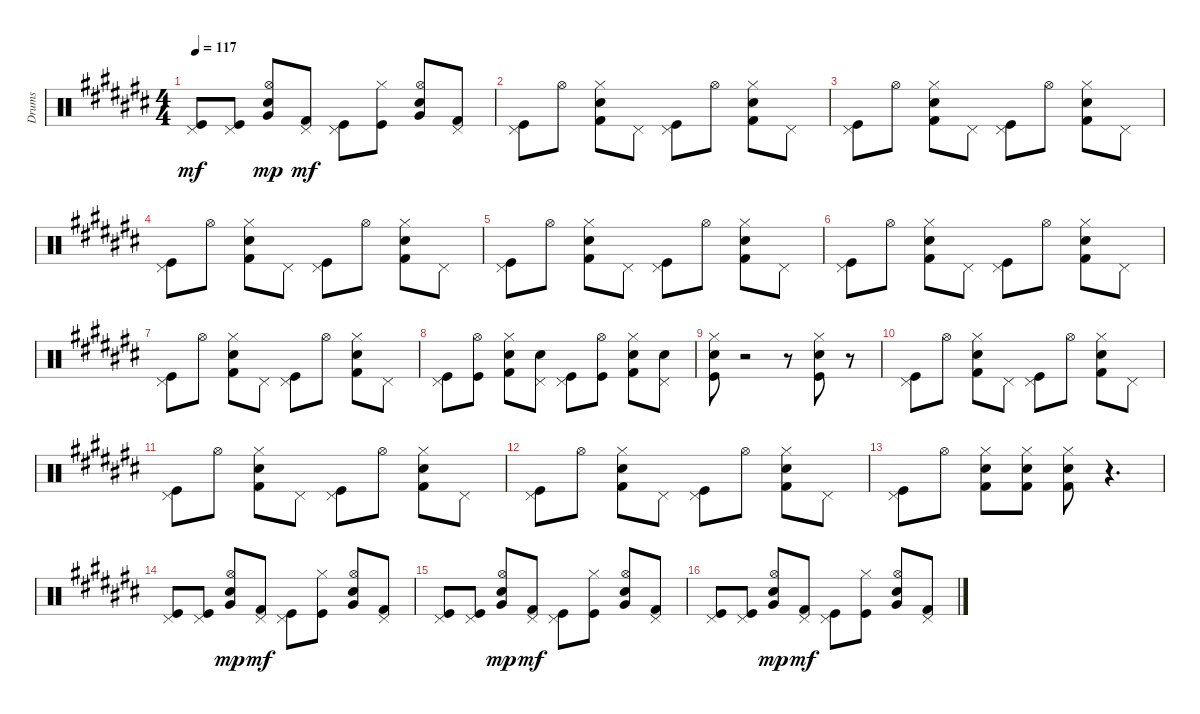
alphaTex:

\track ("Drums" "Drums") {instrument percussion}
\staff {score}
\articulation defaults
\ts (4 4)
\tempo 117
\clef neutral
\ks a#minor
("Pedal Hi-Hat (hit)" "Kick (hit)").8{dy mf} ("Kick (hit)" "Pedal Hi-Hat (hit)").8 ("Snare (hit) 2" "Hi-Hat (open)" "Very Low Tom (hit)").8{dy mp} ("Pedal Hi-Hat (hit)" "Kick (hit) 2").8{dy mf} ("Pedal Hi-Hat (hit)" "Kick (hit)").8 ("Kick (hit)" "Hi-Hat (closed)").8 ("Very Low Tom (hit)" "Snare (hit) 2" "Hi-Hat (open)").8 ("Pedal Hi-Hat (hit)" "Kick (hit) 2").8 |
("Kick (hit)" "Pedal Hi-Hat (hit)").8 "Hi-Hat (open)".8 ("Kick (hit) 2" "Hi-Hat (closed)" "Snare (hit) 2").8 "Pedal Hi-Hat (hit)".8 ("Kick (hit)" "Pedal Hi-Hat (hit)").8 "Hi-Hat (open)".8 ("Kick (hit) 2" "Hi-Hat (closed)" "Snare (hit) 2").8 "Pedal Hi-Hat (hit)".8 |
("Kick (hit)" "Pedal Hi-Hat (hit)").8 "Hi-Hat (open)".8 ("Kick (hit) 2" "Hi-Hat (closed)" "Snare (hit) 2").8 "Pedal Hi-Hat (hit)".8 ("Kick (hit)" "Pedal Hi-Hat (hit)").8 "Hi-Hat (open)".8 ("Kick (hit) 2" "Hi-Hat (closed)" "Snare (hit) 2").8 "Pedal Hi-Hat (hit)".8 |
("Kick (hit)" "Pedal Hi-Hat (hit)").8 "Hi-Hat (open)".8 ("Kick (hit) 2" "Hi-Hat (closed)" "Snare (hit) 2").8 "Pedal Hi-Hat (hit)".8 ("Kick (hit)" "Pedal Hi-Hat (hit)").8 "Hi-Hat (open)".8 ("Kick (hit) 2" "Hi-Hat (closed)" "Snare (hit) 2").8 "Pedal Hi-Hat (hit)".8 |
("Kick (hit)" "Pedal Hi-Hat (hit)").8 "Hi-Hat (open)".8 ("Kick (hit) 2" "Hi-Hat (closed)" "Snare (hit) 2").8 "Pedal Hi-Hat (hit)".8 ("Kick (hit)" "Pedal Hi-Hat (hit)").8 "Hi-Hat (open)".8 ("Kick (hit) 2" "Hi-Hat (closed)" "Snare (hit) 2").8 "Pedal Hi-Hat (hit)".8 |
("Kick (hit)" "Pedal Hi-Hat (hit)").8 "Hi-Hat (open)".8 ("Kick (hit) 2" "Hi-Hat (closed)" "Snare (hit) 2").8 "Pedal Hi-Hat (hit)".8 ("Kick (hit)" "Pedal Hi-Hat (hit)").8 "Hi-Hat (open)".8 ("Kick (hit) 2" "Hi-Hat (closed)" "Snare (hit) 2").8 "Pedal Hi-Hat (hit)".8 |
("Kick (hit)" "Pedal Hi-Hat (hit)").8 "Hi-Hat (open)".8 ("Kick (hit) 2" "Hi-Hat (closed)" "Snare (hit) 2").8 "Pedal Hi-Hat (hit)".8 ("Kick (hit)" "Pedal Hi-Hat (hit)").8 "Hi-Hat (open)".8 ("Kick (hit) 2" "Hi-Hat (closed)" "Snare (hit) 2").8 "Pedal Hi-Hat (hit)".8 |
("Kick (hit)" "Pedal Hi-Hat (hit)").8 ("Hi-Hat (open)" "Kick (hit)").8 ("Kick (hit) 2" "Hi-Hat (closed)" "Snare (hit) 2").8 ("Pedal Hi-Hat (hit)" "Snare (hit) 2").8 ("Kick (hit)" "Pedal Hi-Hat (hit)").8 ("Hi-Hat (open)" "Kick (hit)").8 ("Kick (hit) 2" "Hi-Hat (closed)" "Snare (hit) 2").8 ("Pedal Hi-Hat (hit)" "Snare (hit) 2").8 |
("Kick (hit)" "Hi-Hat (closed)" "Snare (hit) 2").8 r.2 r.8 ("Hi-Hat (closed)" "Kick (hit)" "Snare (hit) 2").8 r.8 |
("Pedal Hi-Hat (hit)" "Kick (hit)").8 "Hi-Hat (open)".8 ("Kick (hit) 2" "Hi-Hat (closed)" "Snare (hit) 2").8 "Pedal Hi-Hat (hit)".8 ("Kick (hit)" "Pedal Hi-Hat (hit)").8 "Hi-Hat (open)".8 ("Kick (hit) 2" "Hi-Hat (closed)" "Snare (hit) 2").8 "Pedal Hi-Hat (hit)".8 |
("Kick (hit)" "Pedal Hi-Hat (hit)").8 "Hi-Hat (open)".8 ("Kick (hit) 2" "Hi-Hat (closed)" "Snare (hit) 2").8 "Pedal Hi-Hat (hit)".8 ("Kick (hit)" "Pedal Hi-Hat (hit)").8 "Hi-Hat (open)".8 ("Kick (hit) 2" "Hi-Hat (closed)" "Snare (hit) 2").8 "Pedal Hi-Hat (hit)".8 |
("Kick (hit)" "Pedal Hi-Hat (hit)").8 "Hi-Hat (open)".8 ("Kick (hit) 2" "Hi-Hat (closed)" "Snare (hit) 2").8 "Pedal Hi-Hat (hit)".8 ("Kick (hit)" "Pedal Hi-Hat (hit)").8 "Hi-Hat (open)".8 ("Kick (hit) 2" "Hi-Hat (closed)" "Snare (hit) 2").8 "Pedal Hi-Hat (hit)".8 |
("Pedal Hi-Hat (hit)" "Kick (hit)").8 "Hi-Hat (open)".8 ("Kick (hit) 2" "Hi-Hat (closed)" "Snare (hit) 2").8 ("Snare (hit) 2" "Hi-Hat (closed)" "Kick (hit) 2").8 ("Snare (hit) 2" "Hi-Hat (closed)" "Kick (hit) 2").8 r.4{d} |
("Pedal Hi-Hat (hit)" "Kick (hit)").8 ("Kick (hit)" "Pedal Hi-Hat (hit)").8 ("Snare (hit) 2" "Hi-Hat (open)" "Very Low Tom (hit)").8{dy mp} ("Pedal Hi-Hat (hit)" "Kick (hit) 2").8{dy mf} ("Pedal Hi-Hat (hit)" "Kick (hit)").8 ("Kick (hit)" "Hi-Hat (closed)").8 ("Very Low Tom (hit)" "Snare (hit) 2" "Hi-Hat (open)").8 ("Pedal Hi-Hat (hit)" "Kick (hit) 2").8 |
("Pedal Hi-Hat (hit)" "Kick (hit)").8 ("Kick (hit)" "Pedal Hi-Hat (hit)").8 ("Snare (hit) 2" "Hi-Hat (open)" "Very Low Tom (hit)").8{dy mp} ("Pedal Hi-Hat (hit)" "Kick (hit) 2").8{dy mf} ("Pedal Hi-Hat (hit)" "Kick (hit)").8 ("Kick (hit)" "Hi-Hat (closed)").8 ("Very Low Tom (hit)" "Snare (hit) 2" "Hi-Hat (open)").8 ("Pedal Hi-Hat (hit)" "Kick (hit) 2").8 |
("Pedal Hi-Hat (hit)" "Kick (hit)").8 ("Kick (hit)" "Pedal Hi-Hat (hit)").8 ("Snare (hit) 2" "Hi-Hat (open)" "Very Low Tom (hit)").8{dy mp} ("Pedal Hi-Hat (hit)" "Kick (hit) 2").8{dy mf} ("Pedal Hi-Hat (hit)" "Kick (hit)").8 ("Kick (hit)" "Hi-Hat (closed)").8 ("Very Low Tom (hit)" "Snare (hit) 2" "Hi-Hat (open)").8 ("Pedal Hi-Hat (hit)" "Kick (hit) 2").8
